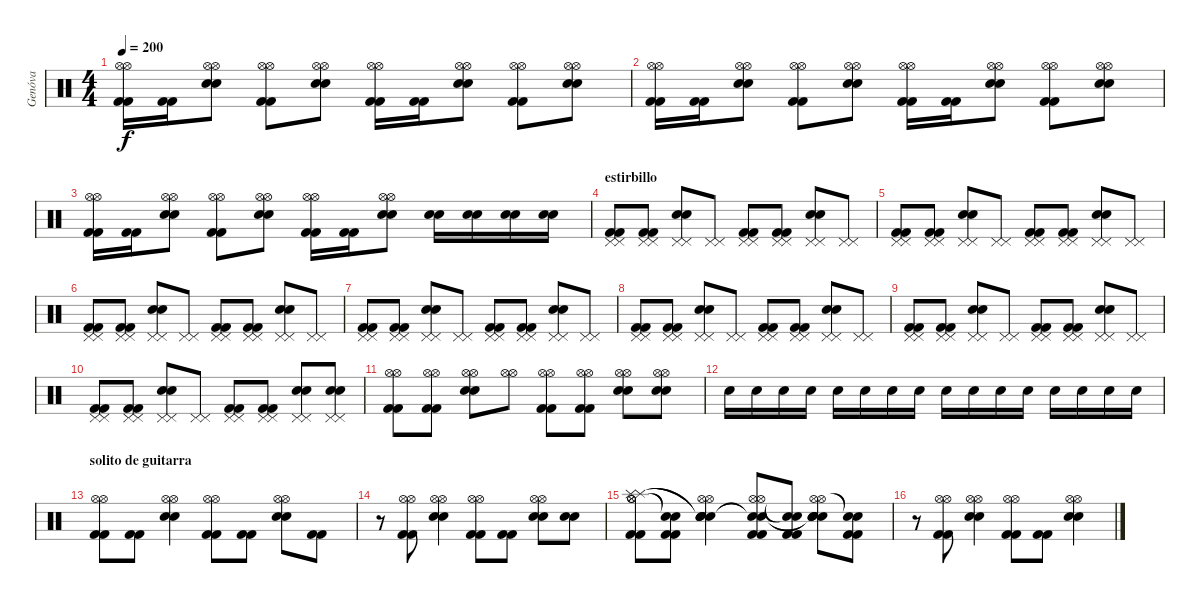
\track ("Genóva" "Genóva") {instrument percussion}
\staff {score}
\articulation defaults
\ts (4 4)
\tempo 200
\clef neutral
\ks c
("Kick (hit) 2" "Kick (hit) 2" "Hi-Hat (open)" "Hi-Hat (open)").16{dy f} ("Kick (hit) 2" "Kick (hit) 2").16 ("Snare (hit) 2" "Snare (hit) 2" "Hi-Hat (open)" "Hi-Hat (open)").8 ("Kick (hit) 2" "Kick (hit) 2" "Hi-Hat (open)" "Hi-Hat (open)").8 ("Snare (hit) 2" "Snare (hit) 2" "Hi-Hat (open)" "Hi-Hat (open)").8 ("Kick (hit) 2" "Kick (hit) 2" "Hi-Hat (open)" "Hi-Hat (open)").16 ("Kick (hit) 2" "Kick (hit) 2").16 ("Snare (hit) 2" "Snare (hit) 2" "Hi-Hat (open)" "Hi-Hat (open)").8 ("Kick (hit) 2" "Kick (hit) 2" "Hi-Hat (open)" "Hi-Hat (open)").8 ("Snare (hit) 2" "Snare (hit) 2" "Hi-Hat (open)" "Hi-Hat (open)").8 |
("Kick (hit) 2" "Kick (hit) 2" "Hi-Hat (open)" "Hi-Hat (open)").16 ("Kick (hit) 2" "Kick (hit) 2").16 ("Snare (hit) 2" "Snare (hit) 2" "Hi-Hat (open)" "Hi-Hat (open)").8 ("Kick (hit) 2" "Kick (hit) 2" "Hi-Hat (open)" "Hi-Hat (open)").8 ("Snare (hit) 2" "Snare (hit) 2" "Hi-Hat (open)" "Hi-Hat (open)").8 ("Kick (hit) 2" "Kick (hit) 2" "Hi-Hat (open)" "Hi-Hat (open)").16 ("Kick (hit) 2" "Kick (hit) 2").16 ("Snare (hit) 2" "Snare (hit) 2" "Hi-Hat (open)" "Hi-Hat (open)").8 ("Kick (hit) 2" "Kick (hit) 2" "Hi-Hat (open)" "Hi-Hat (open)").8 ("Snare (hit) 2" "Snare (hit) 2" "Hi-Hat (open)" "Hi-Hat (open)").8 |
("Kick (hit) 2" "Kick (hit) 2" "Hi-Hat (open)" "Hi-Hat (open)").16 ("Kick (hit) 2" "Kick (hit) 2").16 ("Snare (hit) 2" "Snare (hit) 2" "Hi-Hat (open)" "Hi-Hat (open)").8 ("Kick (hit) 2" "Kick (hit) 2" "Hi-Hat (open)" "Hi-Hat (open)").8 ("Snare (hit) 2" "Snare (hit) 2" "Hi-Hat (open)" "Hi-Hat (open)").8 ("Kick (hit) 2" "Kick (hit) 2" "Hi-Hat (open)" "Hi-Hat (open)").16 ("Kick (hit) 2" "Kick (hit) 2").16 ("Snare (hit) 2" "Snare (hit) 2" "Hi-Hat (open)" "Hi-Hat (open)").8 ("Snare (hit) 2" "Snare (hit) 2").16 ("Snare (hit) 2" "Snare (hit) 2").16 ("Snare (hit) 2" "Snare (hit) 2").16 ("Snare (hit) 2" "Snare (hit) 2").16 |
\section ("" "estirbillo")
("Kick (hit) 2" "Kick (hit) 2" "Pedal Hi-Hat (hit)" "Pedal Hi-Hat (hit)").8 ("Kick (hit) 2" "Kick (hit) 2" "Pedal Hi-Hat (hit)" "Pedal Hi-Hat (hit)").8 ("Snare (hit) 2" "Snare (hit) 2" "Pedal Hi-Hat (hit)" "Pedal Hi-Hat (hit)").8 ("Pedal Hi-Hat (hit)" "Pedal Hi-Hat (hit)").8 ("Kick (hit) 2" "Kick (hit) 2" "Pedal Hi-Hat (hit)" "Pedal Hi-Hat (hit)").8 ("Kick (hit) 2" "Kick (hit) 2" "Pedal Hi-Hat (hit)" "Pedal Hi-Hat (hit)").8 ("Snare (hit) 2" "Snare (hit) 2" "Pedal Hi-Hat (hit)" "Pedal Hi-Hat (hit)").8 ("Pedal Hi-Hat (hit)" "Pedal Hi-Hat (hit)").8 |
("Kick (hit) 2" "Kick (hit) 2" "Pedal Hi-Hat (hit)" "Pedal Hi-Hat (hit)").8 ("Kick (hit) 2" "Kick (hit) 2" "Pedal Hi-Hat (hit)" "Pedal Hi-Hat (hit)").8 ("Snare (hit) 2" "Snare (hit) 2" "Pedal Hi-Hat (hit)" "Pedal Hi-Hat (hit)").8 ("Pedal Hi-Hat (hit)" "Pedal Hi-Hat (hit)").8 ("Kick (hit) 2" "Kick (hit) 2" "Pedal Hi-Hat (hit)" "Pedal Hi-Hat (hit)").8 ("Kick (hit) 2" "Kick (hit) 2" "Pedal Hi-Hat (hit)" "Pedal Hi-Hat (hit)").8 ("Snare (hit) 2" "Snare (hit) 2" "Pedal Hi-Hat (hit)" "Pedal Hi-Hat (hit)").8 ("Pedal Hi-Hat (hit)" "Pedal Hi-Hat (hit)").8 |
("Kick (hit) 2" "Kick (hit) 2" "Pedal Hi-Hat (hit)" "Pedal Hi-Hat (hit)").8 ("Kick (hit) 2" "Kick (hit) 2" "Pedal Hi-Hat (hit)" "Pedal Hi-Hat (hit)").8 ("Snare (hit) 2" "Snare (hit) 2" "Pedal Hi-Hat (hit)" "Pedal Hi-Hat (hit)").8 ("Pedal Hi-Hat (hit)" "Pedal Hi-Hat (hit)").8 ("Kick (hit) 2" "Kick (hit) 2" "Pedal Hi-Hat (hit)" "Pedal Hi-Hat (hit)").8 ("Kick (hit) 2" "Kick (hit) 2" "Pedal Hi-Hat (hit)" "Pedal Hi-Hat (hit)").8 ("Snare (hit) 2" "Snare (hit) 2" "Pedal Hi-Hat (hit)" "Pedal Hi-Hat (hit)").8 ("Pedal Hi-Hat (hit)" "Pedal Hi-Hat (hit)").8 |
("Kick (hit) 2" "Kick (hit) 2" "Pedal Hi-Hat (hit)" "Pedal Hi-Hat (hit)").8 ("Kick (hit) 2" "Kick (hit) 2" "Pedal Hi-Hat (hit)" "Pedal Hi-Hat (hit)").8 ("Snare (hit) 2" "Snare (hit) 2" "Pedal Hi-Hat (hit)" "Pedal Hi-Hat (hit)").8 ("Pedal Hi-Hat (hit)" "Pedal Hi-Hat (hit)").8 ("Kick (hit) 2" "Kick (hit) 2" "Pedal Hi-Hat (hit)" "Pedal Hi-Hat (hit)").8 ("Kick (hit) 2" "Kick (hit) 2" "Pedal Hi-Hat (hit)" "Pedal Hi-Hat (hit)").8 ("Snare (hit) 2" "Snare (hit) 2" "Pedal Hi-Hat (hit)" "Pedal Hi-Hat (hit)").8 ("Pedal Hi-Hat (hit)" "Pedal Hi-Hat (hit)").8 |
("Kick (hit) 2" "Kick (hit) 2" "Pedal Hi-Hat (hit)" "Pedal Hi-Hat (hit)").8 ("Kick (hit) 2" "Kick (hit) 2" "Pedal Hi-Hat (hit)" "Pedal Hi-Hat (hit)").8 ("Snare (hit) 2" "Snare (hit) 2" "Pedal Hi-Hat (hit)" "Pedal Hi-Hat (hit)").8 ("Pedal Hi-Hat (hit)" "Pedal Hi-Hat (hit)").8 ("Kick (hit) 2" "Kick (hit) 2" "Pedal Hi-Hat (hit)" "Pedal Hi-Hat (hit)").8 ("Kick (hit) 2" "Kick (hit) 2" "Pedal Hi-Hat (hit)" "Pedal Hi-Hat (hit)").8 ("Snare (hit) 2" "Snare (hit) 2" "Pedal Hi-Hat (hit)" "Pedal Hi-Hat (hit)").8 ("Pedal Hi-Hat (hit)" "Pedal Hi-Hat (hit)").8 |
("Kick (hit) 2" "Kick (hit) 2" "Pedal Hi-Hat (hit)" "Pedal Hi-Hat (hit)").8 ("Kick (hit) 2" "Kick (hit) 2" "Pedal Hi-Hat (hit)" "Pedal Hi-Hat (hit)").8 ("Snare (hit) 2" "Snare (hit) 2" "Pedal Hi-Hat (hit)" "Pedal Hi-Hat (hit)").8 ("Pedal Hi-Hat (hit)" "Pedal Hi-Hat (hit)").8 ("Kick (hit) 2" "Kick (hit) 2" "Pedal Hi-Hat (hit)" "Pedal Hi-Hat (hit)").8 ("Kick (hit) 2" "Kick (hit) 2" "Pedal Hi-Hat (hit)" "Pedal Hi-Hat (hit)").8 ("Snare (hit) 2" "Snare (hit) 2" "Pedal Hi-Hat (hit)" "Pedal Hi-Hat (hit)").8 ("Pedal Hi-Hat (hit)" "Pedal Hi-Hat (hit)").8 |
("Kick (hit) 2" "Kick (hit) 2" "Pedal Hi-Hat (hit)" "Pedal Hi-Hat (hit)").8 ("Kick (hit) 2" "Kick (hit) 2" "Pedal Hi-Hat (hit)" "Pedal Hi-Hat (hit)").8 ("Snare (hit) 2" "Snare (hit) 2" "Pedal Hi-Hat (hit)" "Pedal Hi-Hat (hit)").8 ("Pedal Hi-Hat (hit)" "Pedal Hi-Hat (hit)").8 ("Kick (hit) 2" "Kick (hit) 2" "Pedal Hi-Hat (hit)" "Pedal Hi-Hat (hit)").8 ("Kick (hit) 2" "Kick (hit) 2" "Pedal Hi-Hat (hit)" "Pedal Hi-Hat (hit)").8 ("Snare (hit) 2" "Snare (hit) 2" "Pedal Hi-Hat (hit)" "Pedal Hi-Hat (hit)").8 ("Snare (hit) 2" "Snare (hit) 2" "Pedal Hi-Hat (hit)" "Pedal Hi-Hat (hit)").8 |
("Kick (hit) 2" "Kick (hit) 2" "Hi-Hat (open)" "Hi-Hat (open)").8 ("Kick (hit) 2" "Kick (hit) 2" "Hi-Hat (open)" "Hi-Hat (open)").8 ("Snare (hit) 2" "Snare (hit) 2" "Hi-Hat (open)" "Hi-Hat (open)").8 ("Hi-Hat (open)" "Hi-Hat (open)").8 ("Kick (hit) 2" "Kick (hit) 2" "Hi-Hat (open)" "Hi-Hat (open)").8 ("Kick (hit) 2" "Kick (hit) 2" "Hi-Hat (open)" "Hi-Hat (open)").8 ("Snare (hit) 2" "Snare (hit) 2" "Hi-Hat (open)" "Hi-Hat (open)").8 ("Snare (hit) 2" "Snare (hit) 2" "Hi-Hat (open)" "Hi-Hat (open)").8 |
"Snare (hit) 2".16 "Snare (hit) 2".16 "Snare (hit) 2".16 "Snare (hit) 2".16 "Snare (hit) 2".16 "Snare (hit) 2".16 "Snare (hit) 2".16 "Snare (hit) 2".16 "Snare (hit) 2".16 "Snare (hit) 2".16 "Snare (hit) 2".16 "Snare (hit) 2".16 "Snare (hit) 2".16 "Snare (hit) 2".16 "Snare (hit) 2".16 "Snare (hit) 2".16 |
\section ("" "solito de guitarra")
("Kick (hit) 2" "Kick (hit) 2" "Hi-Hat (open)" "Hi-Hat (open)").8 ("Kick (hit) 2" "Kick (hit) 2").8 ("Snare (hit) 2" "Snare (hit) 2" "Hi-Hat (open)" "Hi-Hat (open)").4 ("Kick (hit) 2" "Kick (hit) 2" "Hi-Hat (open)" "Hi-Hat (open)").8 ("Kick (hit) 2" "Kick (hit) 2").8 ("Snare (hit) 2" "Snare (hit) 2" "Hi-Hat (open)" "Hi-Hat (open)").8 ("Kick (hit) 2" "Kick (hit) 2").8 |
r.8 ("Kick (hit) 2" "Kick (hit) 2" "Hi-Hat (open)" "Hi-Hat (open)").8 ("Snare (hit) 2" "Snare (hit) 2" "Hi-Hat (open)" "Hi-Hat (open)").4 ("Kick (hit) 2" "Kick (hit) 2" "Hi-Hat (open)" "Hi-Hat (open)").8 ("Kick (hit) 2" "Kick (hit) 2").8 ("Snare (hit) 2" "Snare (hit) 2" "Hi-Hat (open)" "Hi-Hat (open)").8 ("Snare (hit) 2" "Snare (hit) 2").8 |
("Kick (hit) 2" "Kick (hit) 2" "Hi-Hat (open)" "Hi-Hat (open)" "Splash (hit)" "Splash (hit)").8 ("Kick (hit) 2" "Kick (hit) 2" "Snare (hit)"{t} "Snare (hit)"{t}).8 ("Snare (hit) 2" "Snare (hit) 2" "Hi-Hat (open)" "Hi-Hat (open)" "Snare (hit)"{t} "Snare (hit)"{t}).4 ("Kick (hit) 2" "Kick (hit) 2" "Hi-Hat (open)" "Hi-Hat (open)" "Snare (hit)"{t} "Snare (hit)"{t}).8 ("Kick (hit) 2" "Kick (hit) 2" "Snare (hit)"{t} "Snare (hit)"{t}).8 ("Snare (hit) 2" "Snare (hit) 2" "Hi-Hat (open)" "Hi-Hat (open)" "Snare (hit)"{t} "Snare (hit)"{t}).8 ("Kick (hit) 2" "Kick (hit) 2" "Snare (hit)"{t} "Snare (hit)"{t}).8 |
r.8 ("Kick (hit) 2" "Kick (hit) 2" "Hi-Hat (open)" "Hi-Hat (open)").8 ("Snare (hit) 2" "Snare (hit) 2" "Hi-Hat (open)" "Hi-Hat (open)").4 ("Kick (hit) 2" "Kick (hit) 2" "Hi-Hat (open)" "Hi-Hat (open)").8 ("Kick (hit) 2" "Kick (hit) 2").8 ("Snare (hit) 2" "Snare (hit) 2" "Hi-Hat (open)" "Hi-Hat (open)").4
